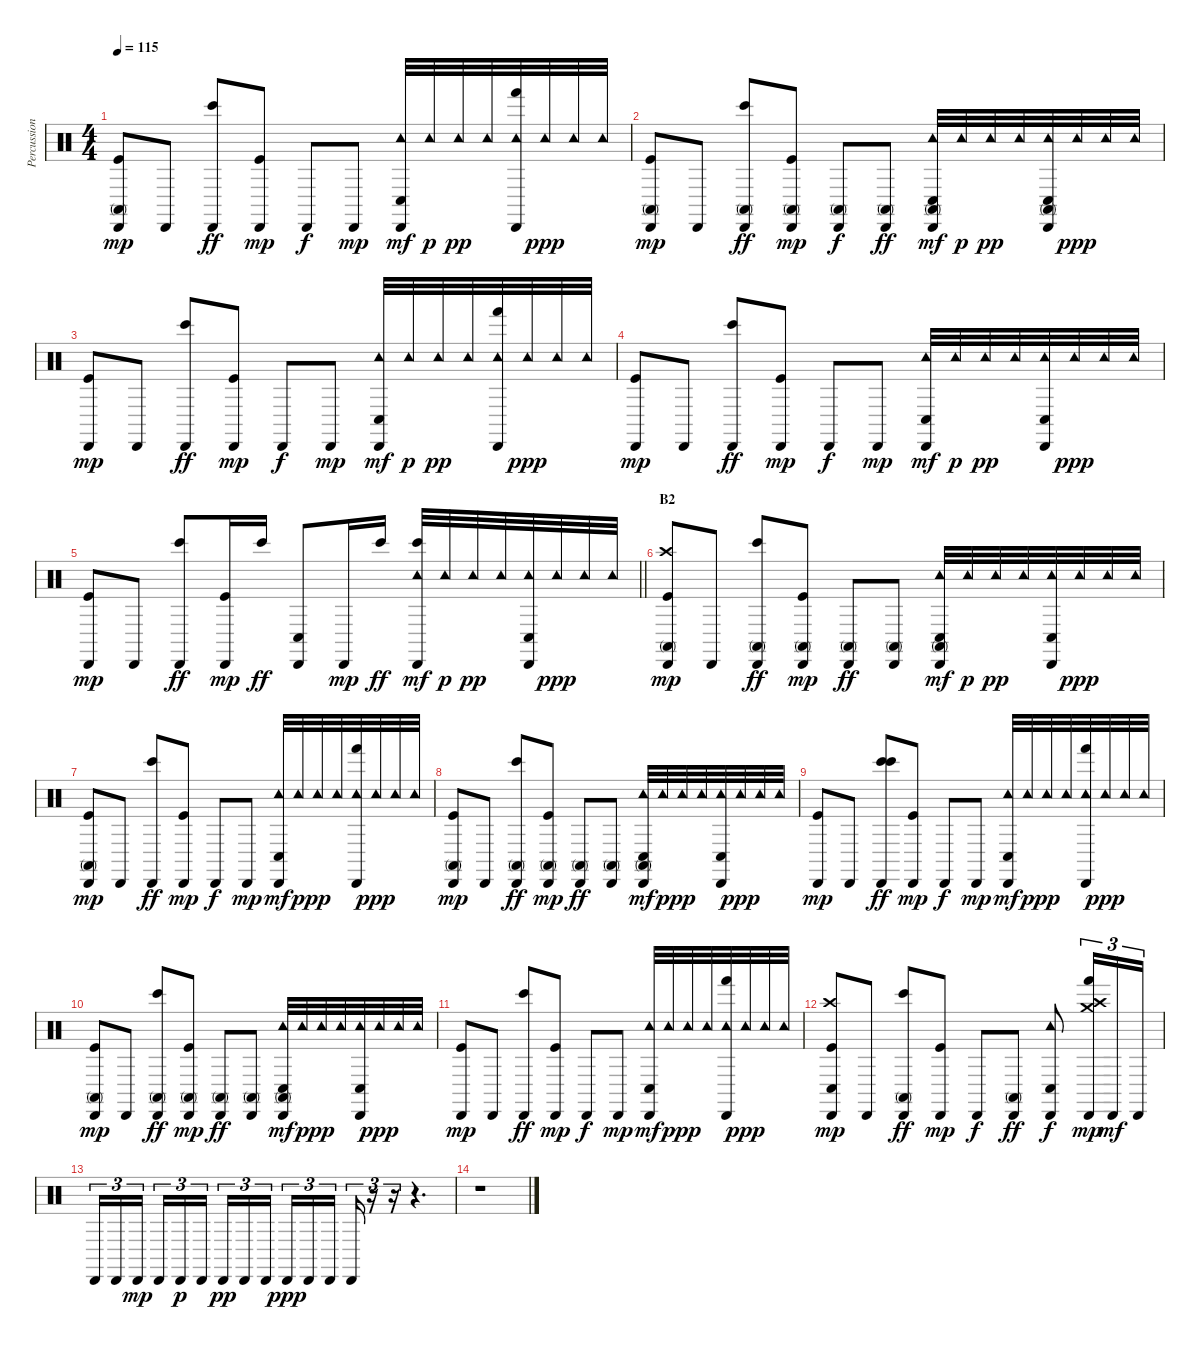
\track ("Percussions" "Percussion") {instrument percussion}
\staff {score}
\articulation defaults
\ts (4 4)
\tempo 115
\clef neutral
\ks c
("Cabasa (hit)" "Conga high (mute)" "Kick (hit)").8{dy mp} "Cabasa (hit)".8 ("Cabasa (hit)" "Bongo High (hit)").8{dy ff} ("Cabasa (hit)" "Kick (hit)").8{dy mp} "Cabasa (hit)".8{dy f} "Cabasa (hit)".8{dy mp} ("Cabasa (hit)" "Conga low (hit)" "Tambourine (hit)").32{dy mf} "Tambourine (hit)".32{dy p} "Tambourine (hit)".32{dy pp} "Tambourine (hit)".32 ("Cabasa (hit)" "Hand (hit)" "Tambourine (hit)").32 "Tambourine (hit)".32{dy ppp} "Tambourine (hit)".32 "Tambourine (hit)".32 |
("Cabasa (hit)" "Conga high (mute)" "Kick (hit)").8{dy mp} "Cabasa (hit)".8 ("Cabasa (hit)" "Conga high (mute)" "Bongo High (hit)").8{dy ff} ("Cabasa (hit)" "Conga high (mute)" "Kick (hit)").8{dy mp} ("Cabasa (hit)" "Conga high (mute)").8{dy f} ("Cabasa (hit)" "Conga high (mute)").8{dy ff} ("Cabasa (hit)" "Conga high (mute)" "Conga low (hit)" "Tambourine (hit)").32{dy mf} "Tambourine (hit)".32{dy p} "Tambourine (hit)".32{dy pp} "Tambourine (hit)".32 ("Cabasa (hit)" "Conga high (mute)" "Conga low (hit)" "Tambourine (hit)").32 "Tambourine (hit)".32{dy ppp} "Tambourine (hit)".32 "Tambourine (hit)".32 |
("Cabasa (hit)" "Kick (hit)").8{dy mp} "Cabasa (hit)".8 ("Cabasa (hit)" "Bongo High (hit)").8{dy ff} ("Cabasa (hit)" "Kick (hit)").8{dy mp} "Cabasa (hit)".8{dy f} "Cabasa (hit)".8{dy mp} ("Cabasa (hit)" "Conga low (hit)" "Tambourine (hit)").32{dy mf} "Tambourine (hit)".32{dy p} "Tambourine (hit)".32{dy pp} "Tambourine (hit)".32 ("Cabasa (hit)" "Hand (hit)" "Tambourine (hit)").32 "Tambourine (hit)".32{dy ppp} "Tambourine (hit)".32 "Tambourine (hit)".32 |
("Cabasa (hit)" "Kick (hit)").8{dy mp} "Cabasa (hit)".8 ("Cabasa (hit)" "Bongo High (hit)").8{dy ff} ("Cabasa (hit)" "Kick (hit)").8{dy mp} "Cabasa (hit)".8{dy f} "Cabasa (hit)".8{dy mp} ("Cabasa (hit)" "Conga low (hit)" "Tambourine (hit)").32{dy mf} "Tambourine (hit)".32{dy p} "Tambourine (hit)".32{dy pp} "Tambourine (hit)".32 ("Cabasa (hit)" "Conga low (hit)" "Tambourine (hit)").32 "Tambourine (hit)".32{dy ppp} "Tambourine (hit)".32 "Tambourine (hit)".32 |
\barLineRight lightlight
("Cabasa (hit)" "Kick (hit)").8{dy mp} "Cabasa (hit)".8 ("Cabasa (hit)" "Bongo High (hit)").8{dy ff} ("Cabasa (hit)" "Kick (hit)").16{dy mp} "Bongo High (hit)".16{dy ff} ("Cabasa (hit)" "Conga low (hit)").8 "Cabasa (hit)".16{dy mp} "Bongo High (hit)".16{dy ff} ("Cabasa (hit)" "Bongo High (hit)" "Tambourine (hit)").32{dy mf} "Tambourine (hit)".32{dy p} "Tambourine (hit)".32{dy pp} "Tambourine (hit)".32 ("Cabasa (hit)" "Conga low (hit)" "Tambourine (hit)").32 "Tambourine (hit)".32{dy ppp} "Tambourine (hit)".32 "Tambourine (hit)".32 |
\section ("" "B2")
("Cabasa (hit)" "Crash high (hit)" "Conga high (mute)" "Kick (hit)").8{dy mp} "Cabasa (hit)".8 ("Cabasa (hit)" "Conga high (mute)" "Bongo High (hit)").8{dy ff} ("Cabasa (hit)" "Conga high (mute)" "Kick (hit)").8{dy mp} ("Cabasa (hit)" "Conga high (mute)").8{dy ff} ("Cabasa (hit)" "Conga high (mute)").8 ("Cabasa (hit)" "Conga high (mute)" "Conga low (hit)" "Tambourine (hit)").32{dy mf} "Tambourine (hit)".32{dy p} "Tambourine (hit)".32{dy pp} "Tambourine (hit)".32 ("Cabasa (hit)" "Conga low (hit)" "Tambourine (hit)").32 "Tambourine (hit)".32{dy ppp} "Tambourine (hit)".32 "Tambourine (hit)".32 |
("Cabasa (hit)" "Conga high (mute)" "Kick (hit)").8{dy mp} "Cabasa (hit)".8 ("Cabasa (hit)" "Bongo High (hit)").8{dy ff} ("Cabasa (hit)" "Kick (hit)").8{dy mp} "Cabasa (hit)".8{dy f} "Cabasa (hit)".8{dy mp} ("Cabasa (hit)" "Conga low (hit)" "Tambourine (hit)").32{dy mf} "Tambourine (hit)".32{dy p} "Tambourine (hit)".32{dy pp} "Tambourine (hit)".32 ("Cabasa (hit)" "Hand (hit)" "Tambourine (hit)").32 "Tambourine (hit)".32{dy ppp} "Tambourine (hit)".32 "Tambourine (hit)".32 |
("Cabasa (hit)" "Conga high (mute)" "Kick (hit)").8{dy mp} "Cabasa (hit)".8 ("Cabasa (hit)" "Conga high (mute)" "Bongo High (hit)").8{dy ff} ("Cabasa (hit)" "Conga high (mute)" "Kick (hit)").8{dy mp} ("Cabasa (hit)" "Conga high (mute)").8{dy ff} ("Cabasa (hit)" "Conga high (mute)").8 ("Cabasa (hit)" "Conga high (mute)" "Conga low (hit)" "Tambourine (hit)").32{dy mf} "Tambourine (hit)".32{dy p} "Tambourine (hit)".32{dy pp} "Tambourine (hit)".32 ("Cabasa (hit)" "Conga low (hit)" "Tambourine (hit)").32 "Tambourine (hit)".32{dy ppp} "Tambourine (hit)".32 "Tambourine (hit)".32 |
("Cabasa (hit)" "Kick (hit)").8{dy mp} "Cabasa (hit)".8 ("Cabasa (hit)" "Bongo High (hit)" "Bongo High (hit)").8{dy ff} ("Cabasa (hit)" "Kick (hit)").8{dy mp} "Cabasa (hit)".8{dy f} "Cabasa (hit)".8{dy mp} ("Cabasa (hit)" "Conga low (hit)" "Tambourine (hit)").32{dy mf} "Tambourine (hit)".32{dy p} "Tambourine (hit)".32{dy pp} "Tambourine (hit)".32 ("Cabasa (hit)" "Hand (hit)" "Tambourine (hit)").32 "Tambourine (hit)".32{dy ppp} "Tambourine (hit)".32 "Tambourine (hit)".32 |
("Cabasa (hit)" "Conga high (mute)" "Kick (hit)").8{dy mp} "Cabasa (hit)".8 ("Cabasa (hit)" "Conga high (mute)" "Bongo High (hit)").8{dy ff} ("Cabasa (hit)" "Conga high (mute)" "Kick (hit)").8{dy mp} ("Cabasa (hit)" "Conga high (mute)").8{dy ff} ("Cabasa (hit)" "Conga high (mute)").8 ("Cabasa (hit)" "Conga high (mute)" "Conga low (hit)" "Tambourine (hit)").32{dy mf} "Tambourine (hit)".32{dy p} "Tambourine (hit)".32{dy pp} "Tambourine (hit)".32 ("Cabasa (hit)" "Conga low (hit)" "Tambourine (hit)").32 "Tambourine (hit)".32{dy ppp} "Tambourine (hit)".32 "Tambourine (hit)".32 |
("Cabasa (hit)" "Kick (hit)").8{dy mp} "Cabasa (hit)".8 ("Cabasa (hit)" "Bongo High (hit)").8{dy ff} ("Cabasa (hit)" "Kick (hit)").8{dy mp} "Cabasa (hit)".8{dy f} "Cabasa (hit)".8{dy mp} ("Cabasa (hit)" "Conga low (hit)" "Tambourine (hit)").32{dy mf} "Tambourine (hit)".32{dy p} "Tambourine (hit)".32{dy pp} "Tambourine (hit)".32 ("Cabasa (hit)" "Hand (hit)" "Tambourine (hit)").32 "Tambourine (hit)".32{dy ppp} "Tambourine (hit)".32 "Tambourine (hit)".32 |
("Cabasa (hit)" "Crash high (hit)" "Conga low (hit)" "Kick (hit)").8{dy mp} "Cabasa (hit)".8 ("Cabasa (hit)" "Conga high (mute)" "Bongo High (hit)").8{dy ff} ("Cabasa (hit)" "Kick (hit)").8{dy mp} "Cabasa (hit)".8{dy f} ("Cabasa (hit)" "Conga high (mute)").8{dy ff} ("Cabasa (hit)" "Conga low (hit)" "Tambourine (hit)").8{dy f} ("Cabasa (hit)" "Crash high (hit)" "Hand (hit)" "Crash medium (hit)").16{tu (3 2) dy mp} "Cabasa (hit)".16{tu (3 2) dy mf} "Cabasa (hit)".16{tu (3 2)} |
"Cabasa (hit)".16{tu (3 2)} "Cabasa (hit)".16{tu (3 2)} "Cabasa (hit)".16{tu (3 2) dy mp beam splitsecondary} "Cabasa (hit)".16{tu (3 2)} "Cabasa (hit)".16{tu (3 2) dy p} "Cabasa (hit)".16{tu (3 2)} "Cabasa (hit)".16{tu (3 2) dy pp} "Cabasa (hit)".16{tu (3 2)} "Cabasa (hit)".16{tu (3 2) beam splitsecondary} "Cabasa (hit)".16{tu (3 2) dy ppp} "Cabasa (hit)".16{tu (3 2)} "Cabasa (hit)".16{tu (3 2)} "Cabasa (hit)".16{tu (3 2)} r.16{tu (3 2)} r.16{tu (3 2)} r.4{d} |
r.1
